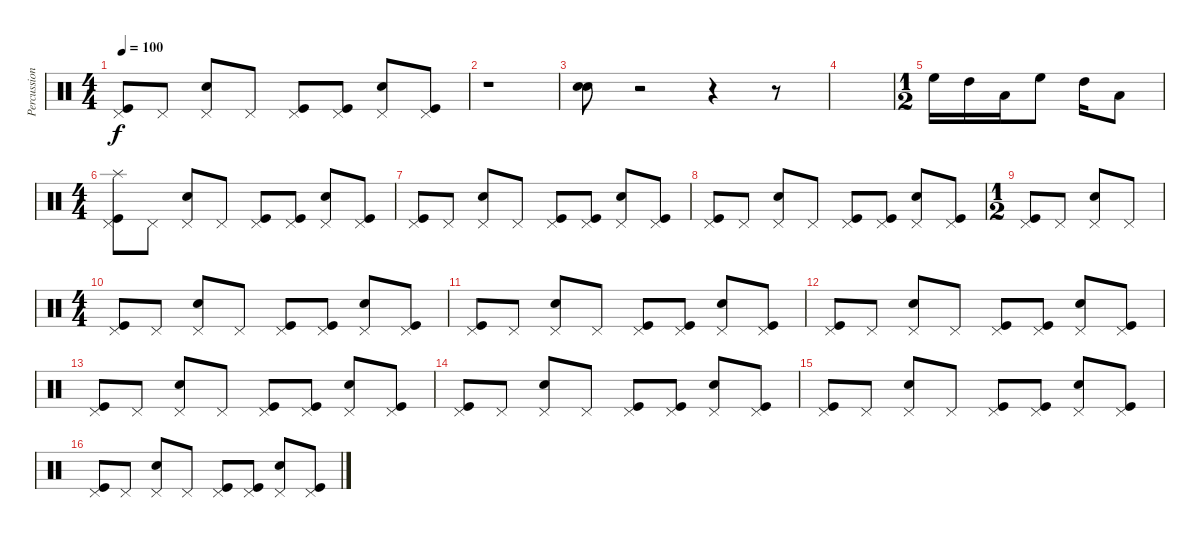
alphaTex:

\track ("Percussion" "Percussion") {instrument percussion}
\staff {score}
\articulation defaults
\ts (4 4)
\tempo 100
\clef neutral
\ks c
("Kick (hit)" "Pedal Hi-Hat (hit)").8{dy f} "Pedal Hi-Hat (hit)".8 ("Snare (hit) 2" "Pedal Hi-Hat (hit)").8 "Pedal Hi-Hat (hit)".8 ("Kick (hit)" "Pedal Hi-Hat (hit)").8 ("Kick (hit)" "Pedal Hi-Hat (hit)").8 ("Snare (hit) 2" "Pedal Hi-Hat (hit)").8 ("Kick (hit)" "Pedal Hi-Hat (hit)").8 |
r.1 |
("Snare (hit) 2" "Snare (hit) 2").8 r.2 r.4 r.8 |
|
\ts (1 2)
"High Floor Tom (hit)".16 "High Tom (hit)".16 "Low Tom (hit)".16 "High Floor Tom (hit)".8 "High Tom (hit)".16 "Low Tom (hit)".8 |
\ts (4 4)
("Splash (hit)" "Kick (hit)" "Pedal Hi-Hat (hit)").8 "Pedal Hi-Hat (hit)".8 ("Snare (hit) 2" "Pedal Hi-Hat (hit)").8 "Pedal Hi-Hat (hit)".8 ("Kick (hit)" "Pedal Hi-Hat (hit)").8 ("Kick (hit)" "Pedal Hi-Hat (hit)").8 ("Snare (hit) 2" "Pedal Hi-Hat (hit)").8 ("Kick (hit)" "Pedal Hi-Hat (hit)").8 |
("Kick (hit)" "Pedal Hi-Hat (hit)").8 "Pedal Hi-Hat (hit)".8 ("Snare (hit) 2" "Pedal Hi-Hat (hit)").8 "Pedal Hi-Hat (hit)".8 ("Kick (hit)" "Pedal Hi-Hat (hit)").8 ("Kick (hit)" "Pedal Hi-Hat (hit)").8 ("Snare (hit) 2" "Pedal Hi-Hat (hit)").8 ("Kick (hit)" "Pedal Hi-Hat (hit)").8 |
("Kick (hit)" "Pedal Hi-Hat (hit)").8 "Pedal Hi-Hat (hit)".8 ("Snare (hit) 2" "Pedal Hi-Hat (hit)").8 "Pedal Hi-Hat (hit)".8 ("Kick (hit)" "Pedal Hi-Hat (hit)").8 ("Kick (hit)" "Pedal Hi-Hat (hit)").8 ("Snare (hit) 2" "Pedal Hi-Hat (hit)").8 ("Kick (hit)" "Pedal Hi-Hat (hit)").8 |
\ts (1 2)
("Kick (hit)" "Pedal Hi-Hat (hit)").8 "Pedal Hi-Hat (hit)".8 ("Snare (hit) 2" "Pedal Hi-Hat (hit)").8 "Pedal Hi-Hat (hit)".8 |
\ts (4 4)
("Kick (hit)" "Pedal Hi-Hat (hit)").8 "Pedal Hi-Hat (hit)".8 ("Snare (hit) 2" "Pedal Hi-Hat (hit)").8 "Pedal Hi-Hat (hit)".8 ("Kick (hit)" "Pedal Hi-Hat (hit)").8 ("Kick (hit)" "Pedal Hi-Hat (hit)").8 ("Snare (hit) 2" "Pedal Hi-Hat (hit)").8 ("Kick (hit)" "Pedal Hi-Hat (hit)").8 |
("Kick (hit)" "Pedal Hi-Hat (hit)").8 "Pedal Hi-Hat (hit)".8 ("Snare (hit) 2" "Pedal Hi-Hat (hit)").8 "Pedal Hi-Hat (hit)".8 ("Kick (hit)" "Pedal Hi-Hat (hit)").8 ("Kick (hit)" "Pedal Hi-Hat (hit)").8 ("Snare (hit) 2" "Pedal Hi-Hat (hit)").8 ("Kick (hit)" "Pedal Hi-Hat (hit)").8 |
("Kick (hit)" "Pedal Hi-Hat (hit)").8 "Pedal Hi-Hat (hit)".8 ("Snare (hit) 2" "Pedal Hi-Hat (hit)").8 "Pedal Hi-Hat (hit)".8 ("Kick (hit)" "Pedal Hi-Hat (hit)").8 ("Kick (hit)" "Pedal Hi-Hat (hit)").8 ("Snare (hit) 2" "Pedal Hi-Hat (hit)").8 ("Kick (hit)" "Pedal Hi-Hat (hit)").8 |
("Kick (hit)" "Pedal Hi-Hat (hit)").8 "Pedal Hi-Hat (hit)".8 ("Snare (hit) 2" "Pedal Hi-Hat (hit)").8 "Pedal Hi-Hat (hit)".8 ("Kick (hit)" "Pedal Hi-Hat (hit)").8 ("Kick (hit)" "Pedal Hi-Hat (hit)").8 ("Snare (hit) 2" "Pedal Hi-Hat (hit)").8 ("Kick (hit)" "Pedal Hi-Hat (hit)").8 |
("Kick (hit)" "Pedal Hi-Hat (hit)").8 "Pedal Hi-Hat (hit)".8 ("Snare (hit) 2" "Pedal Hi-Hat (hit)").8 "Pedal Hi-Hat (hit)".8 ("Kick (hit)" "Pedal Hi-Hat (hit)").8 ("Kick (hit)" "Pedal Hi-Hat (hit)").8 ("Snare (hit) 2" "Pedal Hi-Hat (hit)").8 ("Kick (hit)" "Pedal Hi-Hat (hit)").8 |
("Kick (hit)" "Pedal Hi-Hat (hit)").8 "Pedal Hi-Hat (hit)".8 ("Snare (hit) 2" "Pedal Hi-Hat (hit)").8 "Pedal Hi-Hat (hit)".8 ("Kick (hit)" "Pedal Hi-Hat (hit)").8 ("Kick (hit)" "Pedal Hi-Hat (hit)").8 ("Snare (hit) 2" "Pedal Hi-Hat (hit)").8 ("Kick (hit)" "Pedal Hi-Hat (hit)").8 |
("Kick (hit)" "Pedal Hi-Hat (hit)").8 "Pedal Hi-Hat (hit)".8 ("Snare (hit) 2" "Pedal Hi-Hat (hit)").8 "Pedal Hi-Hat (hit)".8 ("Kick (hit)" "Pedal Hi-Hat (hit)").8 ("Kick (hit)" "Pedal Hi-Hat (hit)").8 ("Snare (hit) 2" "Pedal Hi-Hat (hit)").8 ("Kick (hit)" "Pedal Hi-Hat (hit)").8
